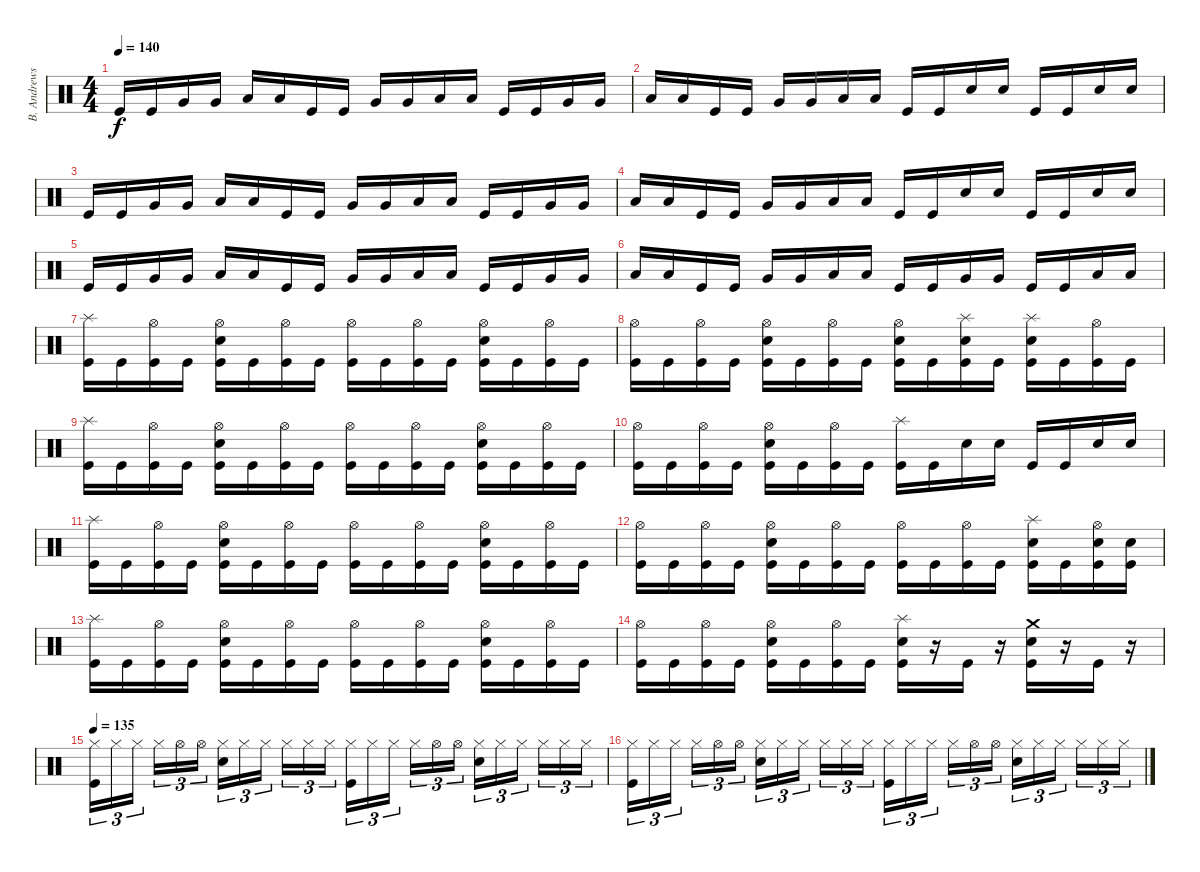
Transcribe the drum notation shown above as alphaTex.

\track ("B. Andrews" "B. Andrews") {instrument percussion}
\staff {score}
\articulation defaults
\ts (4 4)
\tempo 140
\clef neutral
\ks c "Kick (hit)".16{dy f} "Kick (hit)".16 "Very Low Tom (hit)".16 "Very Low Tom (hit)".16 "Low Floor Tom (hit)".16 "Low Floor Tom (hit)".16 "Kick (hit)".16 "Kick (hit)".16 "Very Low Tom (hit)".16 "Very Low Tom (hit)".16 "Low Floor Tom (hit)".16 "Low Floor Tom (hit)".16 "Kick (hit)".16 "Kick (hit)".16 "Very Low Tom (hit)".16 "Very Low Tom (hit)".16
|
"Low Floor Tom (hit)".16 "Low Floor Tom (hit)".16 "Kick (hit)".16 "Kick (hit)".16 "Very Low Tom (hit)".16 "Very Low Tom (hit)".16 "Low Floor Tom (hit)".16 "Low Floor Tom (hit)".16 "Kick (hit)".16 "Kick (hit)".16 "Electric Snare (hit)".16 "Electric Snare (hit)".16 "Kick (hit)".16 "Kick (hit)".16 "Electric Snare (hit)".16 "Electric Snare (hit)".16 |
"Kick (hit)".16 "Kick (hit)".16 "Very Low Tom (hit)".16 "Very Low Tom (hit)".16 "Low Floor Tom (hit)".16 "Low Floor Tom (hit)".16 "Kick (hit)".16 "Kick (hit)".16 "Very Low Tom (hit)".16 "Very Low Tom (hit)".16 "Low Floor Tom (hit)".16 "Low Floor Tom (hit)".16 "Kick (hit)".16 "Kick (hit)".16 "Very Low Tom (hit)".16 "Very Low Tom (hit)".16 |
"Low Floor Tom (hit)".16 "Low Floor Tom (hit)".16 "Kick (hit)".16 "Kick (hit)".16 "Very Low Tom (hit)".16 "Very Low Tom (hit)".16 "Low Floor Tom (hit)".16 "Low Floor Tom (hit)".16 "Kick (hit)".16 "Kick (hit)".16 "Electric Snare (hit)".16 "Electric Snare (hit)".16 "Kick (hit)".16 "Kick (hit)".16 "Electric Snare (hit)".16 "Electric Snare (hit)".16 |
"Kick (hit)".16 "Kick (hit)".16 "Very Low Tom (hit)".16 "Very Low Tom (hit)".16 "Low Floor Tom (hit)".16 "Low Floor Tom (hit)".16 "Kick (hit)".16 "Kick (hit)".16 "Very Low Tom (hit)".16 "Very Low Tom (hit)".16 "Low Floor Tom (hit)".16 "Low Floor Tom (hit)".16 "Kick (hit)".16 "Kick (hit)".16 "Very Low Tom (hit)".16 "Very Low Tom (hit)".16 |
"Low Floor Tom (hit)".16 "Low Floor Tom (hit)".16 "Kick (hit)".16 "Kick (hit)".16 "Very Low Tom (hit)".16 "Very Low Tom (hit)".16 "Low Floor Tom (hit)".16 "Low Floor Tom (hit)".16 "Kick (hit)".16 "Kick (hit)".16 "Very Low Tom (hit)".16 "Very Low Tom (hit)".16 "Kick (hit)".16 "Kick (hit)".16 "Low Floor Tom (hit)".16 "Low Floor Tom (hit)".16 |
("Splash (hit)" "Kick (hit)").16 "Kick (hit)".16 ("Hi-Hat (open)" "Kick (hit)").16 "Kick (hit)".16 ("Hi-Hat (open)" "Electric Snare (hit)" "Kick (hit)").16 "Kick (hit)".16 ("Hi-Hat (open)" "Kick (hit)").16 "Kick (hit)".16 ("Hi-Hat (open)" "Kick (hit)").16 "Kick (hit)".16 ("Hi-Hat (open)" "Kick (hit)").16 "Kick (hit)".16 ("Hi-Hat (open)" "Electric Snare (hit)" "Kick (hit)").16 "Kick (hit)".16 ("Hi-Hat (open)" "Kick (hit)").16 "Kick (hit)".16 |
("Hi-Hat (open)" "Kick (hit)").16 "Kick (hit)".16 ("Hi-Hat (open)" "Kick (hit)").16 "Kick (hit)".16 ("Hi-Hat (open)" "Electric Snare (hit)" "Kick (hit)").16 "Kick (hit)".16 ("Hi-Hat (open)" "Kick (hit)").16 "Kick (hit)".16 ("Hi-Hat (open)" "Electric Snare (hit)" "Kick (hit)").16 "Kick (hit)".16 ("Splash (hit)" "Electric Snare (hit)" "Kick (hit)").16 "Kick (hit)".16 ("Splash (hit)" "Electric Snare (hit)" "Kick (hit)").16 "Kick (hit)".16 ("Hi-Hat (open)" "Kick (hit)").16 "Kick (hit)".16 |
("Splash (hit)" "Kick (hit)").16 "Kick (hit)".16 ("Hi-Hat (open)" "Kick (hit)").16 "Kick (hit)".16 ("Hi-Hat (open)" "Electric Snare (hit)" "Kick (hit)").16 "Kick (hit)".16 ("Hi-Hat (open)" "Kick (hit)").16 "Kick (hit)".16 ("Hi-Hat (open)" "Kick (hit)").16 "Kick (hit)".16 ("Hi-Hat (open)" "Kick (hit)").16 "Kick (hit)".16 ("Hi-Hat (open)" "Electric Snare (hit)" "Kick (hit)").16 "Kick (hit)".16 ("Hi-Hat (open)" "Kick (hit)").16 "Kick (hit)".16 |
("Hi-Hat (open)" "Kick (hit)").16 "Kick (hit)".16 ("Hi-Hat (open)" "Kick (hit)").16 "Kick (hit)".16 ("Hi-Hat (open)" "Electric Snare (hit)" "Kick (hit)").16 "Kick (hit)".16 ("Hi-Hat (open)" "Kick (hit)").16 "Kick (hit)".16 ("Splash (hit)" "Kick (hit)").16 "Kick (hit)".16 "Electric Snare (hit)".16 "Electric Snare (hit)".16 "Kick (hit)".16 "Kick (hit)".16 "Electric Snare (hit)".16 "Electric Snare (hit)".16 |
("Splash (hit)" "Kick (hit)").16 "Kick (hit)".16 ("Hi-Hat (open)" "Kick (hit)").16 "Kick (hit)".16 ("Hi-Hat (open)" "Electric Snare (hit)" "Kick (hit)").16 "Kick (hit)".16 ("Hi-Hat (open)" "Kick (hit)").16 "Kick (hit)".16 ("Hi-Hat (open)" "Kick (hit)").16 "Kick (hit)".16 ("Hi-Hat (open)" "Kick (hit)").16 "Kick (hit)".16 ("Hi-Hat (open)" "Electric Snare (hit)" "Kick (hit)").16 "Kick (hit)".16 ("Hi-Hat (open)" "Kick (hit)").16 "Kick (hit)".16 |
("Hi-Hat (open)" "Kick (hit)").16 "Kick (hit)".16 ("Hi-Hat (open)" "Kick (hit)").16 "Kick (hit)".16 ("Hi-Hat (open)" "Electric Snare (hit)" "Kick (hit)").16 "Kick (hit)".16 ("Hi-Hat (open)" "Kick (hit)").16 "Kick (hit)".16 ("Hi-Hat (open)" "Kick (hit)").16 "Kick (hit)".16 ("Hi-Hat (open)" "Kick (hit)").16 "Kick (hit)".16 ("Splash (hit)" "Electric Snare (hit)" "Kick (hit)").16 "Kick (hit)".16 ("Hi-Hat (open)" "Electric Snare (hit)" "Kick (hit)").16 ("Electric Snare (hit)" "Kick (hit)").16 |
("Splash (hit)" "Kick (hit)").16 "Kick (hit)".16 ("Hi-Hat (open)" "Kick (hit)").16 "Kick (hit)".16 ("Hi-Hat (open)" "Electric Snare (hit)" "Kick (hit)").16 "Kick (hit)".16 ("Hi-Hat (open)" "Kick (hit)").16 "Kick (hit)".16 ("Hi-Hat (open)" "Kick (hit)").16 "Kick (hit)".16 ("Hi-Hat (open)" "Kick (hit)").16 "Kick (hit)".16 ("Hi-Hat (open)" "Electric Snare (hit)" "Kick (hit)").16 "Kick (hit)".16 ("Hi-Hat (open)" "Kick (hit)").16 "Kick (hit)".16 |
("Hi-Hat (open)" "Kick (hit)").16 "Kick (hit)".16 ("Hi-Hat (open)" "Kick (hit)").16 "Kick (hit)".16 ("Hi-Hat (open)" "Electric Snare (hit)" "Kick (hit)").16 "Kick (hit)".16 ("Hi-Hat (open)" "Kick (hit)").16 "Kick (hit)".16 ("Splash (hit)" "Electric Snare (hit)" "Kick (hit)").16 r.16 "Kick (hit)".16 r.16 ("Crash medium (hit)" "Electric Snare (hit)" "Kick (hit)").16 r.16 "Kick (hit)".16 r.16 |
\tempo 135
("Hi-Hat (closed)" "Kick (hit)").16{tu (3 2)} "Hi-Hat (closed)".16{tu (3 2)} "Hi-Hat (closed)".16{tu (3 2) beam splitsecondary} "Hi-Hat (closed)".16{tu (3 2)} "Hi-Hat (open)".16{tu (3 2)} "Hi-Hat (open)".16{tu (3 2)} ("Hi-Hat (closed)" "Electric Snare (hit)").16{tu (3 2)} "Hi-Hat (closed)".16{tu (3 2)} "Hi-Hat (closed)".16{tu (3 2) beam splitsecondary} "Hi-Hat (closed)".16{tu (3 2)} "Hi-Hat (closed)".16{tu (3 2)} "Hi-Hat (closed)".16{tu (3 2)} ("Hi-Hat (closed)" "Kick (hit)").16{tu (3 2)} "Hi-Hat (closed)".16{tu (3 2)} "Hi-Hat (closed)".16{tu (3 2) beam splitsecondary} "Hi-Hat (closed)".16{tu (3 2)} "Hi-Hat (open)".16{tu (3 2)} "Hi-Hat (open)".16{tu (3 2)} ("Hi-Hat (closed)" "Electric Snare (hit)").16{tu (3 2)} "Hi-Hat (closed)".16{tu (3 2)} "Hi-Hat (closed)".16{tu (3 2) beam splitsecondary} "Hi-Hat (closed)".16{tu (3 2)} "Hi-Hat (closed)".16{tu (3 2)} "Hi-Hat (closed)".16{tu (3 2)} |
("Hi-Hat (closed)" "Kick (hit)").16{tu (3 2)} "Hi-Hat (closed)".16{tu (3 2)} "Hi-Hat (closed)".16{tu (3 2) beam splitsecondary} "Hi-Hat (closed)".16{tu (3 2)} "Hi-Hat (open)".16{tu (3 2)} "Hi-Hat (open)".16{tu (3 2)} ("Hi-Hat (closed)" "Electric Snare (hit)").16{tu (3 2)} "Hi-Hat (closed)".16{tu (3 2)} "Hi-Hat (closed)".16{tu (3 2) beam splitsecondary} "Hi-Hat (closed)".16{tu (3 2)} "Hi-Hat (closed)".16{tu (3 2)} "Hi-Hat (closed)".16{tu (3 2)} ("Hi-Hat (closed)" "Kick (hit)").16{tu (3 2)} "Hi-Hat (closed)".16{tu (3 2)} "Hi-Hat (closed)".16{tu (3 2) beam splitsecondary} "Hi-Hat (closed)".16{tu (3 2)} "Hi-Hat (open)".16{tu (3 2)} "Hi-Hat (open)".16{tu (3 2)} ("Hi-Hat (closed)" "Electric Snare (hit)").16{tu (3 2)} "Hi-Hat (closed)".16{tu (3 2)} "Hi-Hat (closed)".16{tu (3 2) beam splitsecondary} "Hi-Hat (closed)".16{tu (3 2)} "Hi-Hat (closed)".16{tu (3 2)} "Hi-Hat (closed)".16{tu (3 2)}
